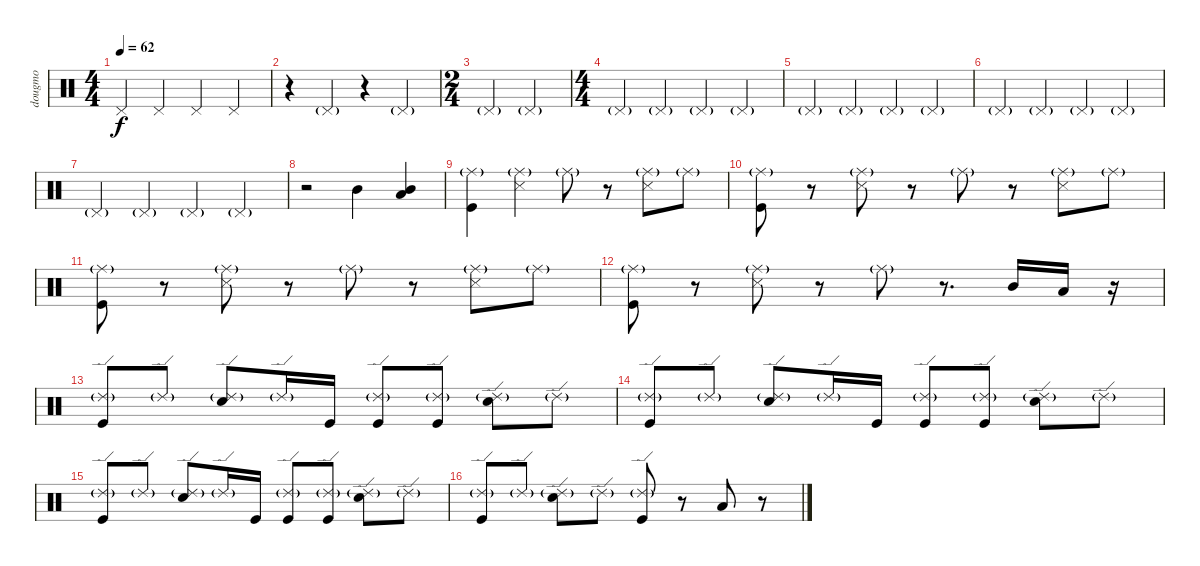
\track ("dougmo" "dougmo") {instrument percussion}
\staff {score}
\articulation defaults
\ts (4 4)
\tempo 62
\clef neutral
\ks c "Pedal Hi-Hat (hit)".4{dy f} "Pedal Hi-Hat (hit)".4 "Pedal Hi-Hat (hit)".4 "Pedal Hi-Hat (hit)".4
|
r.4 "Pedal Hi-Hat (hit)"{g}.4 r.4 "Pedal Hi-Hat (hit)"{g}.4 |
\ts (2 4)
"Pedal Hi-Hat (hit)"{g}.4 "Pedal Hi-Hat (hit)"{g}.4 |
\ts (4 4)
"Pedal Hi-Hat (hit)"{g}.4 "Pedal Hi-Hat (hit)"{g}.4 "Pedal Hi-Hat (hit)"{g}.4 "Pedal Hi-Hat (hit)"{g}.4 |
"Pedal Hi-Hat (hit)"{g}.4 "Pedal Hi-Hat (hit)"{g}.4 "Pedal Hi-Hat (hit)"{g}.4 "Pedal Hi-Hat (hit)"{g}.4 |
"Pedal Hi-Hat (hit)"{g}.4 "Pedal Hi-Hat (hit)"{g}.4 "Pedal Hi-Hat (hit)"{g}.4 "Pedal Hi-Hat (hit)"{g}.4 |
"Pedal Hi-Hat (hit)"{g}.4 "Pedal Hi-Hat (hit)"{g}.4 "Pedal Hi-Hat (hit)"{g}.4 "Pedal Hi-Hat (hit)"{g}.4 |
r.2 "Mid Tom (hit)".4 ("Low Tom (hit)" "Mid Tom (hit)").4 |
("Ride (middle)"{g} "Kick (hit)").4 ("Snare (side stick) 3" "Ride (middle)"{g}).4 "Ride (middle)"{g}.8 r.8 ("Snare (side stick) 3" "Ride (middle)"{g}).8 "Ride (middle)"{g}.8 |
("Ride (middle)"{g} "Kick (hit)").8 r.8 ("Ride (middle)"{g} "Snare (side stick) 3").8 r.8 "Ride (middle)"{g}.8 r.8 ("Snare (side stick) 3" "Ride (middle)"{g}).8 "Ride (middle)"{g}.8 |
("Ride (middle)"{g} "Kick (hit)").8 r.8 ("Ride (middle)"{g} "Snare (side stick) 3").8 r.8 "Ride (middle)"{g}.8 r.8 ("Ride (middle)"{g} "Snare (side stick) 3").8 "Ride (middle)"{g}.8 |
("Ride (middle)"{g} "Kick (hit)").8 r.8 ("Ride (middle)"{g} "Snare (side stick) 3").8 r.8 "Ride (middle)"{g}.8 r.8{d} "Mid Tom (hit)".16 "Low Tom (hit)".16 r.16 |
("Kick (hit)" "Ride (edge) 2"{g}).8 "Ride (edge) 2"{g}.8 ("Snare (hit) 2" "Ride (edge) 2"{g}).8 "Ride (edge) 2"{g}.16 "Kick (hit)".16 ("Kick (hit)" "Ride (edge) 2"{g}).8 ("Kick (hit)" "Ride (edge) 2"{g}).8 ("Snare (hit) 2" "Ride (edge) 2"{g}).8 "Ride (edge) 2"{g}.8 |
("Kick (hit)" "Ride (edge) 2"{g}).8 "Ride (edge) 2"{g}.8 ("Snare (hit) 2" "Ride (edge) 2"{g}).8 "Ride (edge) 2"{g}.16 "Kick (hit)".16 ("Kick (hit)" "Ride (edge) 2"{g}).8 ("Kick (hit)" "Ride (edge) 2"{g}).8 ("Snare (hit) 2" "Ride (edge) 2"{g}).8 "Ride (edge) 2"{g}.8 |
("Kick (hit)" "Ride (edge) 2"{g}).8 "Ride (edge) 2"{g}.8 ("Snare (hit) 2" "Ride (edge) 2"{g}).8 "Ride (edge) 2"{g}.16 "Kick (hit)".16 ("Kick (hit)" "Ride (edge) 2"{g}).8 ("Kick (hit)" "Ride (edge) 2"{g}).8 ("Snare (hit) 2" "Ride (edge) 2"{g}).8 "Ride (edge) 2"{g}.8 |
("Ride (edge) 2"{g} "Kick (hit)").8 "Ride (edge) 2"{g}.8 ("Ride (edge) 2"{g} "Snare (hit) 2").8 "Ride (edge) 2"{g}.8 ("Ride (edge) 2"{g} "Kick (hit)").8 r.8 "Low Tom (hit)".8 r.8
